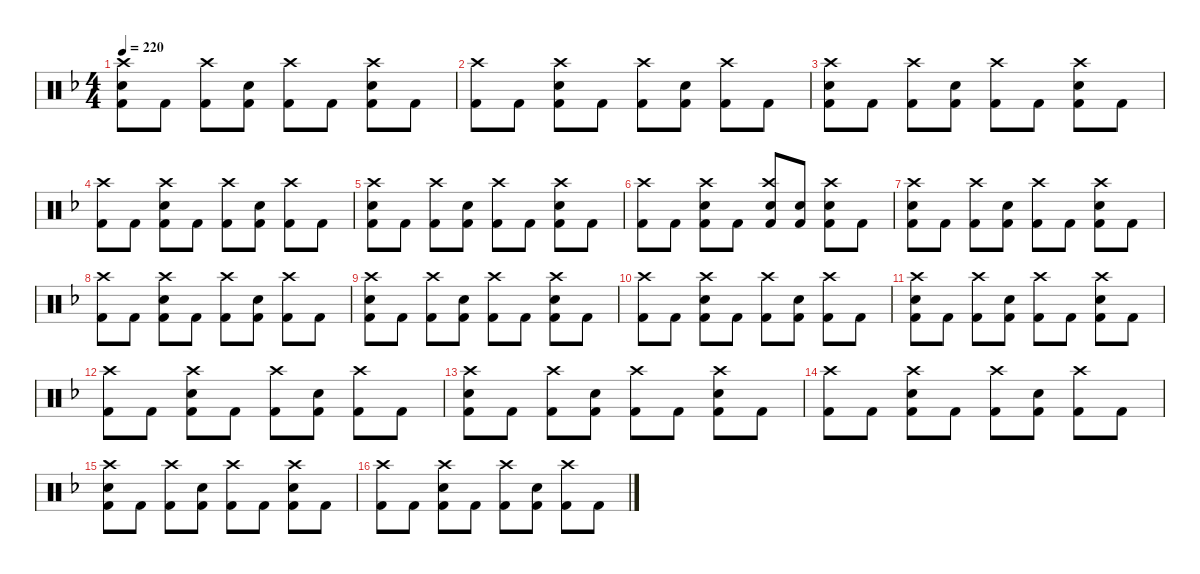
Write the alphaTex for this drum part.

\hideDynamics
\bracketExtendMode nobrackets
\singleTrackTrackNamePolicy hidden
\multiTrackTrackNamePolicy hidden
\firstSystemTrackNameMode fullname
\firstSystemTrackNameOrientation horizontal
\otherSystemsTrackNameOrientation horizontal
\track ("Drumkit" "Drums") {instrument percussion}
\staff {score}
\articulation defaults
\ts (4 4)
\tempo 220
\clef neutral
\ks dminor
("Crash high (hit)"{acc forcenatural} "Snare (hit) 2"{acc forcenatural} "Kick (hit) 2"{acc forcenatural}).8{dy mf beam Down} "Kick (hit) 2"{acc forcenatural}.8{dy f beam Down} ("Crash high (hit)"{acc forcenatural} "Kick (hit) 2"{acc forcenatural}).8{dy mf beam Down} ("Snare (hit) 2"{acc forcenatural} "Kick (hit) 2"{acc forcenatural}).8{dy f beam Down} ("Crash high (hit)"{acc forcenatural} "Kick (hit) 2"{acc forcenatural}).8{dy mf beam Down} "Kick (hit) 2"{acc forcenatural}.8{dy f beam Down} ("Crash high (hit)"{acc forcenatural} "Snare (hit) 2"{acc forcenatural} "Kick (hit) 2"{acc forcenatural}).8{dy mf beam Down} "Kick (hit) 2"{acc forcenatural}.8{dy f beam Down} |
("Crash high (hit)"{acc forcenatural} "Kick (hit) 2"{acc forcenatural}).8{dy mf beam Down} "Kick (hit) 2"{acc forcenatural}.8{dy f beam Down} ("Crash high (hit)"{acc forcenatural} "Snare (hit) 2"{acc forcenatural} "Kick (hit) 2"{acc forcenatural}).8{dy mf beam Down} "Kick (hit) 2"{acc forcenatural}.8{dy f beam Down} ("Crash high (hit)"{acc forcenatural} "Kick (hit) 2"{acc forcenatural}).8{dy mf beam Down} ("Snare (hit) 2"{acc forcenatural} "Kick (hit) 2"{acc forcenatural}).8{dy f beam Down} ("Crash high (hit)"{acc forcenatural} "Kick (hit) 2"{acc forcenatural}).8{dy mf beam Down} "Kick (hit) 2"{acc forcenatural}.8{dy f beam Down} |
("Crash high (hit)"{acc forcenatural} "Snare (hit) 2"{acc forcenatural} "Kick (hit) 2"{acc forcenatural}).8{dy mf beam Down} "Kick (hit) 2"{acc forcenatural}.8{dy f beam Down} ("Crash high (hit)"{acc forcenatural} "Kick (hit) 2"{acc forcenatural}).8{dy mf beam Down} ("Snare (hit) 2"{acc forcenatural} "Kick (hit) 2"{acc forcenatural}).8{dy f beam Down} ("Crash high (hit)"{acc forcenatural} "Kick (hit) 2"{acc forcenatural}).8{dy mf beam Down} "Kick (hit) 2"{acc forcenatural}.8{dy f beam Down} ("Crash high (hit)"{acc forcenatural} "Snare (hit) 2"{acc forcenatural} "Kick (hit) 2"{acc forcenatural}).8{dy mf beam Down} "Kick (hit) 2"{acc forcenatural}.8{dy f beam Down} |
("Crash high (hit)"{acc forcenatural} "Kick (hit) 2"{acc forcenatural}).8{dy mf beam Down} "Kick (hit) 2"{acc forcenatural}.8{dy f beam Down} ("Crash high (hit)"{acc forcenatural} "Snare (hit) 2"{acc forcenatural} "Kick (hit) 2"{acc forcenatural}).8{dy mf beam Down} "Kick (hit) 2"{acc forcenatural}.8{dy f beam Down} ("Crash high (hit)"{acc forcenatural} "Kick (hit) 2"{acc forcenatural}).8{dy mf beam Down} ("Snare (hit) 2"{acc forcenatural} "Kick (hit) 2"{acc forcenatural}).8{dy f beam Down} ("Crash high (hit)"{acc forcenatural} "Kick (hit) 2"{acc forcenatural}).8{dy mf beam Down} "Kick (hit) 2"{acc forcenatural}.8{dy f beam Down} |
("Crash high (hit)"{acc forcenatural} "Snare (hit) 2"{acc forcenatural} "Kick (hit) 2"{acc forcenatural}).8{dy mf beam Down} "Kick (hit) 2"{acc forcenatural}.8{dy f beam Down} ("Crash high (hit)"{acc forcenatural} "Kick (hit) 2"{acc forcenatural}).8{dy mf beam Down} ("Snare (hit) 2"{acc forcenatural} "Kick (hit) 2"{acc forcenatural}).8{dy f beam Down} ("Crash high (hit)"{acc forcenatural} "Kick (hit) 2"{acc forcenatural}).8{dy mf beam Down} "Kick (hit) 2"{acc forcenatural}.8{dy f beam Down} ("Crash high (hit)"{acc forcenatural} "Snare (hit) 2"{acc forcenatural} "Kick (hit) 2"{acc forcenatural}).8{dy mf beam Down} "Kick (hit) 2"{acc forcenatural}.8{dy f beam Down} |
("Crash high (hit)"{acc forcenatural} "Kick (hit) 2"{acc forcenatural}).8{dy mf beam Down} "Kick (hit) 2"{acc forcenatural}.8{dy f beam Down} ("Crash high (hit)"{acc forcenatural} "Snare (hit) 2"{acc forcenatural} "Kick (hit) 2"{acc forcenatural}).8{dy mf beam Down} "Kick (hit) 2"{acc forcenatural}.8{dy f beam Down} ("Crash high (hit)"{acc forcenatural} "Snare (hit) 2"{acc forcenatural} "Kick (hit) 2"{acc forcenatural}).8{dy mf beam Up} ("Snare (hit) 2"{acc forcenatural} "Kick (hit) 2"{acc forcenatural}).8{dy f beam Up} ("Crash high (hit)"{acc forcenatural} "Snare (hit) 2"{acc forcenatural} "Kick (hit) 2"{acc forcenatural}).8{dy mf beam Down} "Kick (hit) 2"{acc forcenatural}.8{dy f beam Down} |
("Crash high (hit)"{acc forcenatural} "Snare (hit) 2"{acc forcenatural} "Kick (hit) 2"{acc forcenatural}).8{dy mf beam Down} "Kick (hit) 2"{acc forcenatural}.8{dy f beam Down} ("Crash high (hit)"{acc forcenatural} "Kick (hit) 2"{acc forcenatural}).8{dy mf beam Down} ("Snare (hit) 2"{acc forcenatural} "Kick (hit) 2"{acc forcenatural}).8{dy f beam Down} ("Crash high (hit)"{acc forcenatural} "Kick (hit) 2"{acc forcenatural}).8{dy mf beam Down} "Kick (hit) 2"{acc forcenatural}.8{dy f beam Down} ("Crash high (hit)"{acc forcenatural} "Snare (hit) 2"{acc forcenatural} "Kick (hit) 2"{acc forcenatural}).8{dy mf beam Down} "Kick (hit) 2"{acc forcenatural}.8{dy f beam Down} |
("Crash high (hit)"{acc forcenatural} "Kick (hit) 2"{acc forcenatural}).8{dy mf beam Down} "Kick (hit) 2"{acc forcenatural}.8{dy f beam Down} ("Crash high (hit)"{acc forcenatural} "Snare (hit) 2"{acc forcenatural} "Kick (hit) 2"{acc forcenatural}).8{dy mf beam Down} "Kick (hit) 2"{acc forcenatural}.8{dy f beam Down} ("Crash high (hit)"{acc forcenatural} "Kick (hit) 2"{acc forcenatural}).8{dy mf beam Down} ("Snare (hit) 2"{acc forcenatural} "Kick (hit) 2"{acc forcenatural}).8{dy f beam Down} ("Crash high (hit)"{acc forcenatural} "Kick (hit) 2"{acc forcenatural}).8{dy mf beam Down} "Kick (hit) 2"{acc forcenatural}.8{dy f beam Down} |
("Crash high (hit)"{acc forcenatural} "Snare (hit) 2"{acc forcenatural} "Kick (hit) 2"{acc forcenatural}).8{dy mf beam Down} "Kick (hit) 2"{acc forcenatural}.8{dy f beam Down} ("Crash high (hit)"{acc forcenatural} "Kick (hit) 2"{acc forcenatural}).8{dy mf beam Down} ("Snare (hit) 2"{acc forcenatural} "Kick (hit) 2"{acc forcenatural}).8{dy f beam Down} ("Crash high (hit)"{acc forcenatural} "Kick (hit) 2"{acc forcenatural}).8{dy mf beam Down} "Kick (hit) 2"{acc forcenatural}.8{dy f beam Down} ("Crash high (hit)"{acc forcenatural} "Snare (hit) 2"{acc forcenatural} "Kick (hit) 2"{acc forcenatural}).8{dy mf beam Down} "Kick (hit) 2"{acc forcenatural}.8{dy f beam Down} |
("Crash high (hit)"{acc forcenatural} "Kick (hit) 2"{acc forcenatural}).8{dy mf beam Down} "Kick (hit) 2"{acc forcenatural}.8{dy f beam Down} ("Crash high (hit)"{acc forcenatural} "Snare (hit) 2"{acc forcenatural} "Kick (hit) 2"{acc forcenatural}).8{dy mf beam Down} "Kick (hit) 2"{acc forcenatural}.8{dy f beam Down} ("Crash high (hit)"{acc forcenatural} "Kick (hit) 2"{acc forcenatural}).8{dy mf beam Down} ("Snare (hit) 2"{acc forcenatural} "Kick (hit) 2"{acc forcenatural}).8{dy f beam Down} ("Crash high (hit)"{acc forcenatural} "Kick (hit) 2"{acc forcenatural}).8{dy mf beam Down} "Kick (hit) 2"{acc forcenatural}.8{dy f beam Down} |
("Crash high (hit)"{acc forcenatural} "Snare (hit) 2"{acc forcenatural} "Kick (hit) 2"{acc forcenatural}).8{dy mf beam Down} "Kick (hit) 2"{acc forcenatural}.8{dy f beam Down} ("Crash high (hit)"{acc forcenatural} "Kick (hit) 2"{acc forcenatural}).8{dy mf beam Down} ("Snare (hit) 2"{acc forcenatural} "Kick (hit) 2"{acc forcenatural}).8{dy f beam Down} ("Crash high (hit)"{acc forcenatural} "Kick (hit) 2"{acc forcenatural}).8{dy mf beam Down} "Kick (hit) 2"{acc forcenatural}.8{dy f beam Down} ("Crash high (hit)"{acc forcenatural} "Snare (hit) 2"{acc forcenatural} "Kick (hit) 2"{acc forcenatural}).8{dy mf beam Down} "Kick (hit) 2"{acc forcenatural}.8{dy f beam Down} |
("Crash high (hit)"{acc forcenatural} "Kick (hit) 2"{acc forcenatural}).8{dy mf beam Down} "Kick (hit) 2"{acc forcenatural}.8{dy f beam Down} ("Crash high (hit)"{acc forcenatural} "Snare (hit) 2"{acc forcenatural} "Kick (hit) 2"{acc forcenatural}).8{dy mf beam Down} "Kick (hit) 2"{acc forcenatural}.8{dy f beam Down} ("Crash high (hit)"{acc forcenatural} "Kick (hit) 2"{acc forcenatural}).8{dy mf beam Down} ("Snare (hit) 2"{acc forcenatural} "Kick (hit) 2"{acc forcenatural}).8{dy f beam Down} ("Crash high (hit)"{acc forcenatural} "Kick (hit) 2"{acc forcenatural}).8{dy mf beam Down} "Kick (hit) 2"{acc forcenatural}.8{dy f beam Down} |
("Crash high (hit)"{acc forcenatural} "Snare (hit) 2"{acc forcenatural} "Kick (hit) 2"{acc forcenatural}).8{dy mf beam Down} "Kick (hit) 2"{acc forcenatural}.8{dy f beam Down} ("Crash high (hit)"{acc forcenatural} "Kick (hit) 2"{acc forcenatural}).8{dy mf beam Down} ("Snare (hit) 2"{acc forcenatural} "Kick (hit) 2"{acc forcenatural}).8{dy f beam Down} ("Crash high (hit)"{acc forcenatural} "Kick (hit) 2"{acc forcenatural}).8{dy mf beam Down} "Kick (hit) 2"{acc forcenatural}.8{dy f beam Down} ("Crash high (hit)"{acc forcenatural} "Snare (hit) 2"{acc forcenatural} "Kick (hit) 2"{acc forcenatural}).8{dy mf beam Down} "Kick (hit) 2"{acc forcenatural}.8{dy f beam Down} |
("Crash high (hit)"{acc forcenatural} "Kick (hit) 2"{acc forcenatural}).8{dy mf beam Down} "Kick (hit) 2"{acc forcenatural}.8{dy f beam Down} ("Crash high (hit)"{acc forcenatural} "Snare (hit) 2"{acc forcenatural} "Kick (hit) 2"{acc forcenatural}).8{dy mf beam Down} "Kick (hit) 2"{acc forcenatural}.8{dy f beam Down} ("Crash high (hit)"{acc forcenatural} "Kick (hit) 2"{acc forcenatural}).8{dy mf beam Down} ("Snare (hit) 2"{acc forcenatural} "Kick (hit) 2"{acc forcenatural}).8{dy f beam Down} ("Crash high (hit)"{acc forcenatural} "Kick (hit) 2"{acc forcenatural}).8{dy mf beam Down} "Kick (hit) 2"{acc forcenatural}.8{dy f beam Down} |
("Crash high (hit)"{acc forcenatural} "Snare (hit) 2"{acc forcenatural} "Kick (hit) 2"{acc forcenatural}).8{dy mf beam Down} "Kick (hit) 2"{acc forcenatural}.8{dy f beam Down} ("Crash high (hit)"{acc forcenatural} "Kick (hit) 2"{acc forcenatural}).8{dy mf beam Down} ("Snare (hit) 2"{acc forcenatural} "Kick (hit) 2"{acc forcenatural}).8{dy f beam Down} ("Crash high (hit)"{acc forcenatural} "Kick (hit) 2"{acc forcenatural}).8{dy mf beam Down} "Kick (hit) 2"{acc forcenatural}.8{dy f beam Down} ("Crash high (hit)"{acc forcenatural} "Snare (hit) 2"{acc forcenatural} "Kick (hit) 2"{acc forcenatural}).8{dy mf beam Down} "Kick (hit) 2"{acc forcenatural}.8{dy f beam Down} |
("Crash high (hit)"{acc forcenatural} "Kick (hit) 2"{acc forcenatural}).8{dy mf beam Down} "Kick (hit) 2"{acc forcenatural}.8{dy f beam Down} ("Crash high (hit)"{acc forcenatural} "Snare (hit) 2"{acc forcenatural} "Kick (hit) 2"{acc forcenatural}).8{dy mf beam Down} "Kick (hit) 2"{acc forcenatural}.8{dy f beam Down} ("Crash high (hit)"{acc forcenatural} "Kick (hit) 2"{acc forcenatural}).8{dy mf beam Down} ("Snare (hit) 2"{acc forcenatural} "Kick (hit) 2"{acc forcenatural}).8{dy f beam Down} ("Crash high (hit)"{acc forcenatural} "Kick (hit) 2"{acc forcenatural}).8{dy mf beam Down} "Kick (hit) 2"{acc forcenatural}.8{dy f beam Down}
